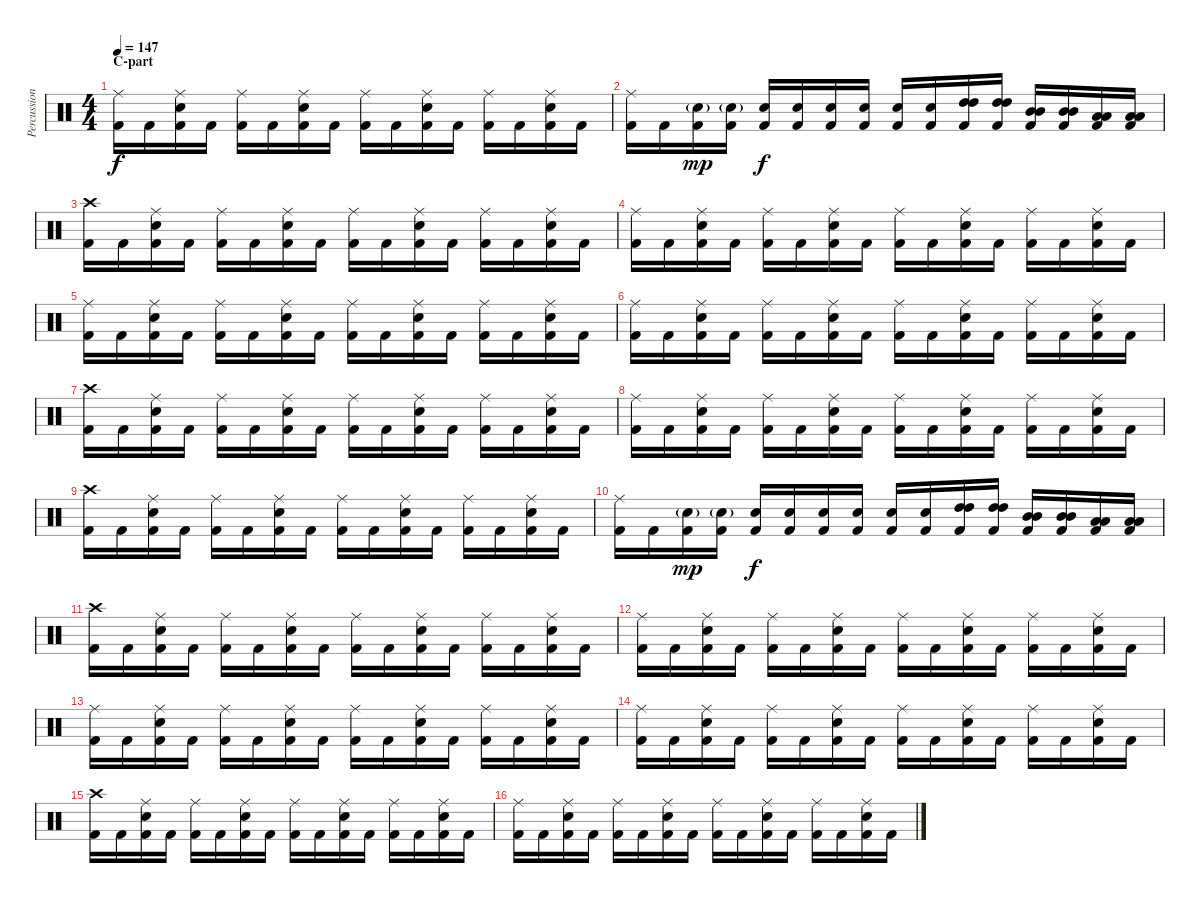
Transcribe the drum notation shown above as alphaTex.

\track ("Percussion" "Percussion") {instrument percussion}
\staff {score}
\articulation defaults
\ts (4 4)
\section ("" "C-part")
\tempo 147
\clef neutral
\ks c
("Kick (hit) 2" "Ride (middle)").16{dy f} "Kick (hit) 2".16 ("Kick (hit) 2" "Snare (hit) 2" "Ride (middle)").16 "Kick (hit) 2".16 ("Kick (hit) 2" "Ride (middle)").16 "Kick (hit) 2".16 ("Kick (hit) 2" "Snare (hit) 2" "Ride (middle)").16 "Kick (hit) 2".16 ("Kick (hit) 2" "Ride (middle)").16 "Kick (hit) 2".16 ("Kick (hit) 2" "Snare (hit) 2" "Ride (middle)").16 "Kick (hit) 2".16 ("Kick (hit) 2" "Ride (middle)").16 "Kick (hit) 2".16 ("Kick (hit) 2" "Snare (hit) 2" "Ride (middle)").16 "Kick (hit) 2".16 |
("Kick (hit) 2" "Ride (middle)").16 "Kick (hit) 2".16 ("Kick (hit) 2" "Snare (hit) 2"{g}).16{dy mp} ("Kick (hit) 2" "Snare (hit) 2"{g}).16 ("Kick (hit) 2" "Snare (hit) 2").16{dy f} ("Kick (hit) 2" "Snare (hit) 2").16 ("Kick (hit) 2" "Snare (hit) 2").16 ("Kick (hit) 2" "Snare (hit) 2").16 ("Kick (hit) 2" "Snare (hit) 2").16 ("Kick (hit) 2" "Snare (hit) 2").16 ("Kick (hit) 2" "High Tom (hit)" "High Tom (hit)").16 ("Kick (hit) 2" "High Tom (hit)" "High Tom (hit)").16 ("Kick (hit) 2" "Mid Tom (hit)" "Mid Tom (hit)").16 ("Kick (hit) 2" "Mid Tom (hit)" "Mid Tom (hit)").16 ("Kick (hit) 2" "Low Tom (hit)" "Low Tom (hit)").16 ("Kick (hit) 2" "Low Tom (hit)" "Low Tom (hit)").16 |
("Kick (hit) 2" "Crash high (hit)").16 "Kick (hit) 2".16 ("Kick (hit) 2" "Snare (hit) 2" "Ride (middle)").16 "Kick (hit) 2".16 ("Kick (hit) 2" "Ride (middle)").16 "Kick (hit) 2".16 ("Kick (hit) 2" "Snare (hit) 2" "Ride (middle)").16 "Kick (hit) 2".16 ("Kick (hit) 2" "Ride (middle)").16 "Kick (hit) 2".16 ("Kick (hit) 2" "Snare (hit) 2" "Ride (middle)").16 "Kick (hit) 2".16 ("Kick (hit) 2" "Ride (middle)").16 "Kick (hit) 2".16 ("Kick (hit) 2" "Snare (hit) 2" "Ride (middle)").16 "Kick (hit) 2".16 |
("Kick (hit) 2" "Ride (middle)").16 "Kick (hit) 2".16 ("Kick (hit) 2" "Snare (hit) 2" "Ride (middle)").16 "Kick (hit) 2".16 ("Kick (hit) 2" "Ride (middle)").16 "Kick (hit) 2".16 ("Kick (hit) 2" "Snare (hit) 2" "Ride (middle)").16 "Kick (hit) 2".16 ("Kick (hit) 2" "Ride (middle)").16 "Kick (hit) 2".16 ("Kick (hit) 2" "Snare (hit) 2" "Ride (middle)").16 "Kick (hit) 2".16 ("Kick (hit) 2" "Ride (middle)").16 "Kick (hit) 2".16 ("Kick (hit) 2" "Snare (hit) 2" "Ride (middle)").16 "Kick (hit) 2".16 |
("Kick (hit) 2" "Ride (middle)").16 "Kick (hit) 2".16 ("Kick (hit) 2" "Snare (hit) 2" "Ride (middle)").16 "Kick (hit) 2".16 ("Kick (hit) 2" "Ride (middle)").16 "Kick (hit) 2".16 ("Kick (hit) 2" "Snare (hit) 2" "Ride (middle)").16 "Kick (hit) 2".16 ("Kick (hit) 2" "Ride (middle)").16 "Kick (hit) 2".16 ("Kick (hit) 2" "Snare (hit) 2" "Ride (middle)").16 "Kick (hit) 2".16 ("Kick (hit) 2" "Ride (middle)").16 "Kick (hit) 2".16 ("Kick (hit) 2" "Snare (hit) 2" "Ride (middle)").16 "Kick (hit) 2".16 |
("Kick (hit) 2" "Ride (middle)").16 "Kick (hit) 2".16 ("Kick (hit) 2" "Snare (hit) 2" "Ride (middle)").16 "Kick (hit) 2".16 ("Kick (hit) 2" "Ride (middle)").16 "Kick (hit) 2".16 ("Kick (hit) 2" "Snare (hit) 2" "Ride (middle)").16 "Kick (hit) 2".16 ("Kick (hit) 2" "Ride (middle)").16 "Kick (hit) 2".16 ("Kick (hit) 2" "Snare (hit) 2" "Ride (middle)").16 "Kick (hit) 2".16 ("Kick (hit) 2" "Ride (middle)").16 "Kick (hit) 2".16 ("Kick (hit) 2" "Snare (hit) 2" "Ride (middle)").16 "Kick (hit) 2".16 |
("Kick (hit) 2" "Crash high (hit)").16 "Kick (hit) 2".16 ("Kick (hit) 2" "Snare (hit) 2" "Ride (middle)").16 "Kick (hit) 2".16 ("Kick (hit) 2" "Ride (middle)").16 "Kick (hit) 2".16 ("Kick (hit) 2" "Snare (hit) 2" "Ride (middle)").16 "Kick (hit) 2".16 ("Kick (hit) 2" "Ride (middle)").16 "Kick (hit) 2".16 ("Kick (hit) 2" "Snare (hit) 2" "Ride (middle)").16 "Kick (hit) 2".16 ("Kick (hit) 2" "Ride (middle)").16 "Kick (hit) 2".16 ("Kick (hit) 2" "Snare (hit) 2" "Ride (middle)").16 "Kick (hit) 2".16 |
("Kick (hit) 2" "Ride (middle)").16 "Kick (hit) 2".16 ("Kick (hit) 2" "Snare (hit) 2" "Ride (middle)").16 "Kick (hit) 2".16 ("Kick (hit) 2" "Ride (middle)").16 "Kick (hit) 2".16 ("Kick (hit) 2" "Snare (hit) 2" "Ride (middle)").16 "Kick (hit) 2".16 ("Kick (hit) 2" "Ride (middle)").16 "Kick (hit) 2".16 ("Kick (hit) 2" "Snare (hit) 2" "Ride (middle)").16 "Kick (hit) 2".16 ("Kick (hit) 2" "Ride (middle)").16 "Kick (hit) 2".16 ("Kick (hit) 2" "Snare (hit) 2" "Ride (middle)").16 "Kick (hit) 2".16 |
("Kick (hit) 2" "Crash high (hit)").16 "Kick (hit) 2".16 ("Kick (hit) 2" "Snare (hit) 2" "Ride (middle)").16 "Kick (hit) 2".16 ("Kick (hit) 2" "Ride (middle)").16 "Kick (hit) 2".16 ("Kick (hit) 2" "Snare (hit) 2" "Ride (middle)").16 "Kick (hit) 2".16 ("Kick (hit) 2" "Ride (middle)").16 "Kick (hit) 2".16 ("Kick (hit) 2" "Snare (hit) 2" "Ride (middle)").16 "Kick (hit) 2".16 ("Kick (hit) 2" "Ride (middle)").16 "Kick (hit) 2".16 ("Kick (hit) 2" "Snare (hit) 2" "Ride (middle)").16 "Kick (hit) 2".16 |
("Kick (hit) 2" "Ride (middle)").16 "Kick (hit) 2".16 ("Kick (hit) 2" "Snare (hit) 2"{g}).16{dy mp} ("Kick (hit) 2" "Snare (hit) 2"{g}).16 ("Kick (hit) 2" "Snare (hit) 2").16{dy f} ("Kick (hit) 2" "Snare (hit) 2").16 ("Kick (hit) 2" "Snare (hit) 2").16 ("Kick (hit) 2" "Snare (hit) 2").16 ("Kick (hit) 2" "Snare (hit) 2").16 ("Kick (hit) 2" "Snare (hit) 2").16 ("Kick (hit) 2" "High Tom (hit)" "High Tom (hit)").16 ("Kick (hit) 2" "High Tom (hit)" "High Tom (hit)").16 ("Kick (hit) 2" "Mid Tom (hit)" "Mid Tom (hit)").16 ("Kick (hit) 2" "Mid Tom (hit)" "Mid Tom (hit)").16 ("Kick (hit) 2" "Low Tom (hit)" "Low Tom (hit)").16 ("Kick (hit) 2" "Low Tom (hit)" "Low Tom (hit)").16 |
("Kick (hit) 2" "Crash high (hit)").16 "Kick (hit) 2".16 ("Kick (hit) 2" "Snare (hit) 2" "Ride (middle)").16 "Kick (hit) 2".16 ("Kick (hit) 2" "Ride (middle)").16 "Kick (hit) 2".16 ("Kick (hit) 2" "Snare (hit) 2" "Ride (middle)").16 "Kick (hit) 2".16 ("Kick (hit) 2" "Ride (middle)").16 "Kick (hit) 2".16 ("Kick (hit) 2" "Snare (hit) 2" "Ride (middle)").16 "Kick (hit) 2".16 ("Kick (hit) 2" "Ride (middle)").16 "Kick (hit) 2".16 ("Kick (hit) 2" "Snare (hit) 2" "Ride (middle)").16 "Kick (hit) 2".16 |
("Kick (hit) 2" "Ride (middle)").16 "Kick (hit) 2".16 ("Kick (hit) 2" "Snare (hit) 2" "Ride (middle)").16 "Kick (hit) 2".16 ("Kick (hit) 2" "Ride (middle)").16 "Kick (hit) 2".16 ("Kick (hit) 2" "Snare (hit) 2" "Ride (middle)").16 "Kick (hit) 2".16 ("Kick (hit) 2" "Ride (middle)").16 "Kick (hit) 2".16 ("Kick (hit) 2" "Snare (hit) 2" "Ride (middle)").16 "Kick (hit) 2".16 ("Kick (hit) 2" "Ride (middle)").16 "Kick (hit) 2".16 ("Kick (hit) 2" "Snare (hit) 2" "Ride (middle)").16 "Kick (hit) 2".16 |
("Kick (hit) 2" "Ride (middle)").16 "Kick (hit) 2".16 ("Kick (hit) 2" "Snare (hit) 2" "Ride (middle)").16 "Kick (hit) 2".16 ("Kick (hit) 2" "Ride (middle)").16 "Kick (hit) 2".16 ("Kick (hit) 2" "Snare (hit) 2" "Ride (middle)").16 "Kick (hit) 2".16 ("Kick (hit) 2" "Ride (middle)").16 "Kick (hit) 2".16 ("Kick (hit) 2" "Snare (hit) 2" "Ride (middle)").16 "Kick (hit) 2".16 ("Kick (hit) 2" "Ride (middle)").16 "Kick (hit) 2".16 ("Kick (hit) 2" "Snare (hit) 2" "Ride (middle)").16 "Kick (hit) 2".16 |
("Kick (hit) 2" "Ride (middle)").16 "Kick (hit) 2".16 ("Kick (hit) 2" "Snare (hit) 2" "Ride (middle)").16 "Kick (hit) 2".16 ("Kick (hit) 2" "Ride (middle)").16 "Kick (hit) 2".16 ("Kick (hit) 2" "Snare (hit) 2" "Ride (middle)").16 "Kick (hit) 2".16 ("Kick (hit) 2" "Ride (middle)").16 "Kick (hit) 2".16 ("Kick (hit) 2" "Snare (hit) 2" "Ride (middle)").16 "Kick (hit) 2".16 ("Kick (hit) 2" "Ride (middle)").16 "Kick (hit) 2".16 ("Kick (hit) 2" "Snare (hit) 2" "Ride (middle)").16 "Kick (hit) 2".16 |
("Kick (hit) 2" "Crash high (hit)").16 "Kick (hit) 2".16 ("Kick (hit) 2" "Snare (hit) 2" "Ride (middle)").16 "Kick (hit) 2".16 ("Kick (hit) 2" "Ride (middle)").16 "Kick (hit) 2".16 ("Kick (hit) 2" "Snare (hit) 2" "Ride (middle)").16 "Kick (hit) 2".16 ("Kick (hit) 2" "Ride (middle)").16 "Kick (hit) 2".16 ("Kick (hit) 2" "Snare (hit) 2" "Ride (middle)").16 "Kick (hit) 2".16 ("Kick (hit) 2" "Ride (middle)").16 "Kick (hit) 2".16 ("Kick (hit) 2" "Snare (hit) 2" "Ride (middle)").16 "Kick (hit) 2".16 |
("Kick (hit) 2" "Ride (middle)").16 "Kick (hit) 2".16 ("Kick (hit) 2" "Snare (hit) 2" "Ride (middle)").16 "Kick (hit) 2".16 ("Kick (hit) 2" "Ride (middle)").16 "Kick (hit) 2".16 ("Kick (hit) 2" "Snare (hit) 2" "Ride (middle)").16 "Kick (hit) 2".16 ("Kick (hit) 2" "Ride (middle)").16 "Kick (hit) 2".16 ("Kick (hit) 2" "Snare (hit) 2" "Ride (middle)").16 "Kick (hit) 2".16 ("Kick (hit) 2" "Ride (middle)").16 "Kick (hit) 2".16 ("Kick (hit) 2" "Snare (hit) 2" "Ride (middle)").16 "Kick (hit) 2".16
